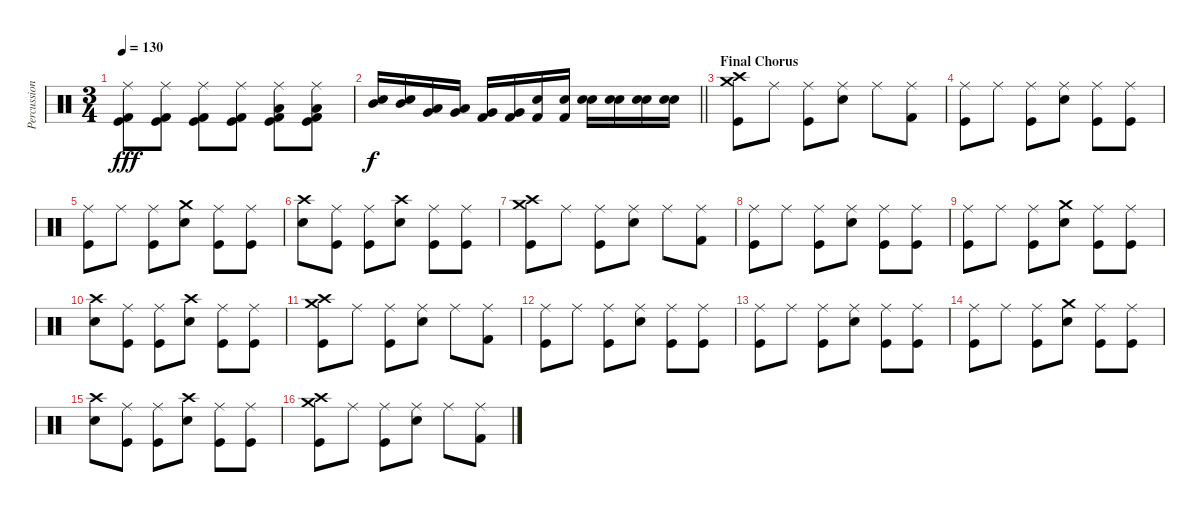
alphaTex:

\track ("Percussion" "Percussion") {instrument percussion}
\staff {score}
\articulation defaults
\ts (3 4)
\tempo 130
\clef neutral
\ks c
("Ride (middle)" "Kick (hit)" "Kick (hit) 2").8{dy fff} ("Ride (middle)" "Kick (hit)" "Kick (hit) 2").8 ("Ride (middle)" "Kick (hit)" "Kick (hit) 2").8 ("Ride (middle)" "Kick (hit)" "Kick (hit) 2").8 ("Ride (middle)" "Low Tom (hit)" "Kick (hit)" "Kick (hit) 2").8 ("Ride (middle)" "Low Tom (hit)" "Kick (hit)" "Kick (hit) 2").8 |
\barLineRight lightlight
("Electric Snare (hit)" "Mid Tom (hit)").16{dy f} ("Electric Snare (hit)" "Mid Tom (hit)").16 ("Very Low Tom (hit)" "Low Tom (hit)").16 ("Very Low Tom (hit)" "Low Tom (hit)").16 ("Very Low Tom (hit)" "Kick (hit) 2").16 ("Very Low Tom (hit)" "Kick (hit) 2").16 ("Electric Snare (hit)" "Kick (hit) 2").16 ("Electric Snare (hit)" "Kick (hit) 2").16 ("Electric Snare (hit)" "Snare (hit) 2").16 ("Electric Snare (hit)" "Snare (hit) 2").16 ("Electric Snare (hit)" "Snare (hit) 2").16 ("Electric Snare (hit)" "Snare (hit) 2").16 |
\section ("" "Final Chorus")
("Crash medium (hit)" "Crash high (hit)" "Kick (hit)").8{volume 10} "Ride (middle)".8 ("Ride (middle)" "Kick (hit)").8 ("Ride (middle)" "Snare (hit) 2").8 "Ride (middle)".8 ("Ride (middle)" "Kick (hit) 2").8 |
("Ride (middle)" "Kick (hit)").8 "Ride (middle)".8 ("Ride (middle)" "Kick (hit)").8 ("Ride (middle)" "Snare (hit) 2").8 ("Ride (middle)" "Kick (hit)").8 ("Ride (middle)" "Kick (hit)").8 |
("Ride (middle)" "Kick (hit)").8 "Ride (middle)".8 ("Ride (middle)" "Kick (hit)").8 ("Crash medium (hit)" "Snare (hit) 2").8 ("Ride (middle)" "Kick (hit)").8 ("Ride (middle)" "Kick (hit)").8 |
("Crash high (hit)" "Snare (hit) 2").8 ("Ride (middle)" "Kick (hit)").8 ("Ride (middle)" "Kick (hit)").8 ("Crash high (hit)" "Snare (hit) 2").8 ("Ride (middle)" "Kick (hit)").8 ("Ride (middle)" "Kick (hit)").8 |
("Crash medium (hit)" "Crash high (hit)" "Kick (hit)").8 "Ride (middle)".8 ("Ride (middle)" "Kick (hit)").8 ("Ride (middle)" "Snare (hit) 2").8 "Ride (middle)".8 ("Ride (middle)" "Kick (hit) 2").8 |
("Ride (middle)" "Kick (hit)").8 "Ride (middle)".8 ("Ride (middle)" "Kick (hit)").8 ("Ride (middle)" "Snare (hit) 2").8 ("Ride (middle)" "Kick (hit)").8 ("Ride (middle)" "Kick (hit)").8 |
("Ride (middle)" "Kick (hit)").8 "Ride (middle)".8 ("Ride (middle)" "Kick (hit)").8 ("Crash medium (hit)" "Snare (hit) 2").8 ("Ride (middle)" "Kick (hit)").8 ("Ride (middle)" "Kick (hit)").8 |
("Crash high (hit)" "Snare (hit) 2").8 ("Ride (middle)" "Kick (hit)").8 ("Ride (middle)" "Kick (hit)").8 ("Crash high (hit)" "Snare (hit) 2").8 ("Ride (middle)" "Kick (hit)").8 ("Ride (middle)" "Kick (hit)").8 |
("Crash medium (hit)" "Crash high (hit)" "Kick (hit)").8 "Ride (middle)".8 ("Ride (middle)" "Kick (hit)").8 ("Ride (middle)" "Snare (hit) 2").8 "Ride (middle)".8 ("Ride (middle)" "Kick (hit) 2").8 |
("Ride (middle)" "Kick (hit)").8 "Ride (middle)".8 ("Ride (middle)" "Kick (hit)").8 ("Ride (middle)" "Snare (hit) 2").8 ("Ride (middle)" "Kick (hit)").8 ("Ride (middle)" "Kick (hit)").8 |
("Ride (middle)" "Kick (hit)").8 "Ride (middle)".8 ("Ride (middle)" "Kick (hit)").8 ("Ride (middle)" "Snare (hit) 2").8 ("Ride (middle)" "Kick (hit)").8 ("Ride (middle)" "Kick (hit)").8 |
("Ride (middle)" "Kick (hit)").8 "Ride (middle)".8 ("Ride (middle)" "Kick (hit)").8 ("Crash medium (hit)" "Snare (hit) 2").8 ("Ride (middle)" "Kick (hit)").8 ("Ride (middle)" "Kick (hit)").8 |
("Crash high (hit)" "Snare (hit) 2").8 ("Ride (middle)" "Kick (hit)").8 ("Ride (middle)" "Kick (hit)").8 ("Crash high (hit)" "Snare (hit) 2").8 ("Ride (middle)" "Kick (hit)").8 ("Ride (middle)" "Kick (hit)").8 |
("Crash medium (hit)" "Crash high (hit)" "Kick (hit)").8 "Ride (middle)".8 ("Ride (middle)" "Kick (hit)").8 ("Ride (middle)" "Snare (hit) 2").8 "Ride (middle)".8 ("Ride (middle)" "Kick (hit) 2").8
